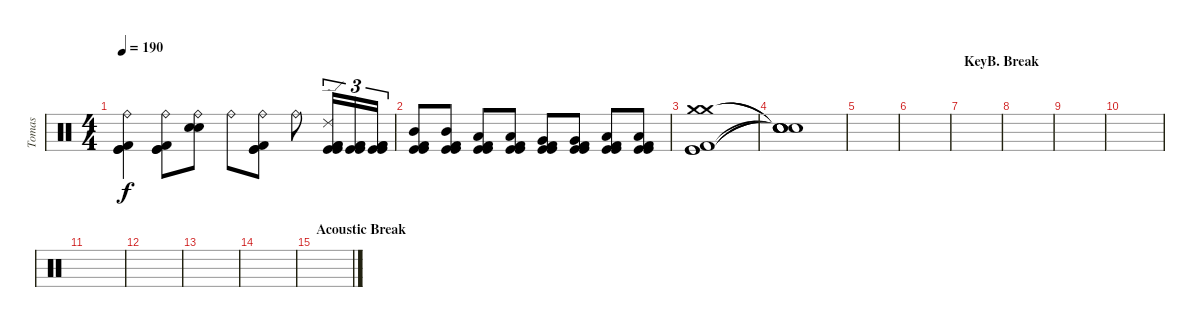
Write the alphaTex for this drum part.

\track ("Tomas" "Tomas") {instrument percussion}
\staff {score}
\articulation defaults
\ts (4 4)
\tempo 190
\clef neutral
\ks c
("Ride (bell)" "Kick (hit)" "Kick (hit)" "Kick (hit) 2").4{dy f} ("Ride (bell)" "Kick (hit)" "Kick (hit)" "Kick (hit) 2").8 ("Ride (bell)" "Electric Snare (hit)" "Electric Snare (hit)").8 "Ride (bell)".8 ("Ride (bell)" "Kick (hit)" "Kick (hit)" "Kick (hit) 2").8 "Ride (bell)".8 ("Ride (edge) 2" "Kick (hit)" "Kick (hit) 2" "Kick (hit)" "Kick (hit) 2").16{tu (3 2)} ("Kick (hit)" "Kick (hit) 2" "Kick (hit)" "Kick (hit) 2").16{tu (3 2)} ("Kick (hit)" "Kick (hit) 2" "Kick (hit)" "Kick (hit) 2").16{tu (3 2)} |
("Mid Tom (hit)" "Kick (hit)" "Kick (hit)" "Kick (hit) 2").8 ("Mid Tom (hit)" "Kick (hit)" "Kick (hit)" "Kick (hit) 2").8 ("Low Tom (hit)" "Kick (hit)" "Kick (hit)" "Kick (hit) 2").8 ("Low Tom (hit)" "Kick (hit)" "Kick (hit)" "Kick (hit) 2").8 ("Very Low Tom (hit)" "Kick (hit)" "Kick (hit)" "Kick (hit) 2").8 ("Very Low Tom (hit)" "Kick (hit)" "Kick (hit)" "Kick (hit) 2").8 ("Low Floor Tom (hit)" "Kick (hit)" "Kick (hit)" "Kick (hit) 2").8 ("Low Floor Tom (hit)" "Kick (hit)" "Kick (hit)" "Kick (hit) 2").8 |
("Crash medium (hit)" "Crash medium (hit)" "Kick (hit)" "Kick (hit) 2" "Kick (hit)").1 |
("Snare (hit)"{t} "Snare (hit)"{t} "Snare (hit)"{t} "Snare (hit)"{t} "Snare (hit)"{t}).1 |
|
|
\section ("" "KeyB. Break")
|
|
|
|
|
|
|
|
\section ("" "Acoustic Break")
